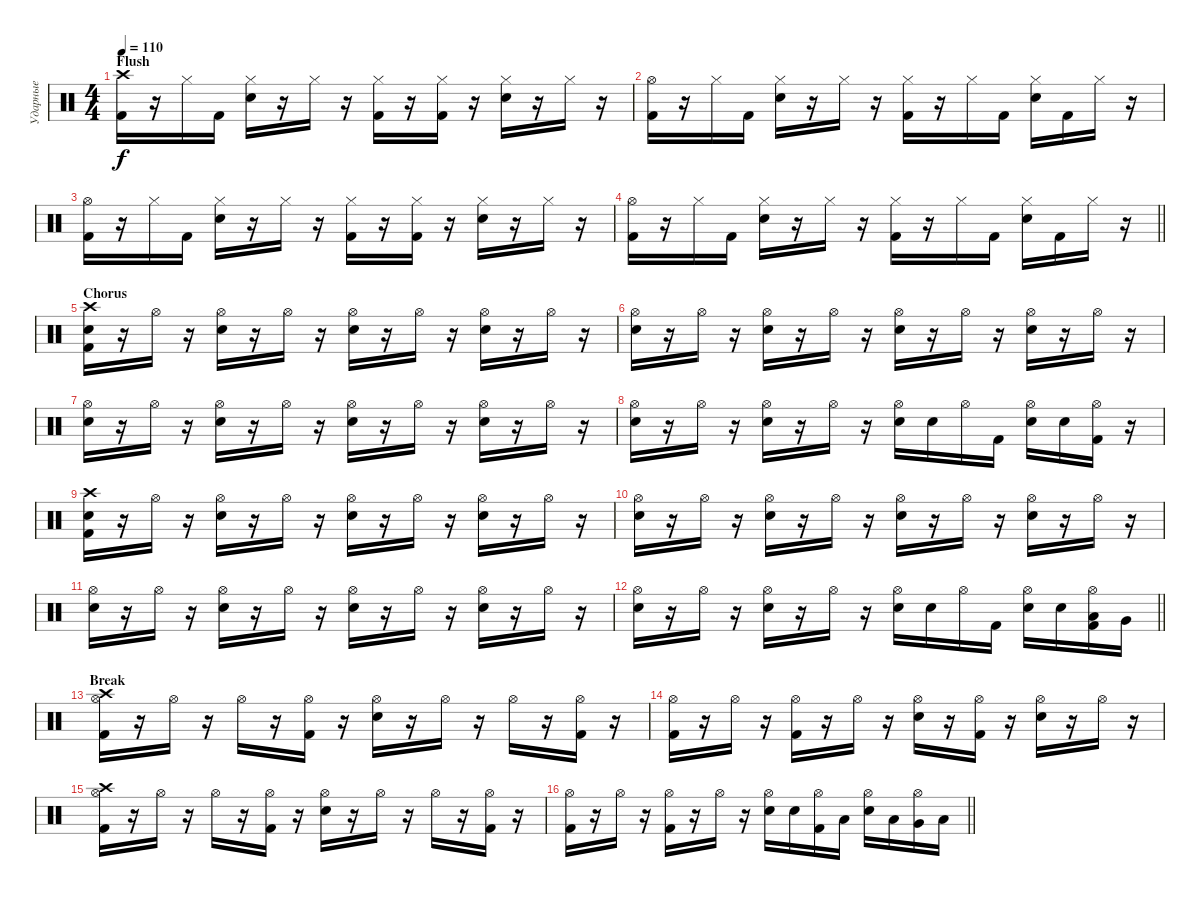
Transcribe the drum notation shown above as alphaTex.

\track ("Ударные" "Ударные") {instrument percussion}
\staff {score}
\articulation defaults
\ts (4 4)
\section ("" "Flush")
\tempo 110
\clef neutral
\ks c
("Crash high (hit)" "Kick (hit) 2").16{dy f} r.16 "Hi-Hat (closed)".16 "Kick (hit) 2".16 ("Hi-Hat (closed)" "Electric Snare (hit)").16 r.16 "Hi-Hat (closed)".16 r.16 ("Hi-Hat (closed)" "Kick (hit) 2").16 r.16 ("Hi-Hat (closed)" "Kick (hit) 2").16 r.16 ("Hi-Hat (closed)" "Electric Snare (hit)").16 r.16 "Hi-Hat (closed)".16 r.16 |
("Hi-Hat (open)" "Kick (hit) 2").16 r.16 "Hi-Hat (closed)".16 "Kick (hit) 2".16 ("Hi-Hat (closed)" "Electric Snare (hit)").16 r.16 "Hi-Hat (closed)".16 r.16 ("Hi-Hat (closed)" "Kick (hit) 2").16 r.16 "Hi-Hat (closed)".16 "Kick (hit) 2".16 ("Hi-Hat (closed)" "Electric Snare (hit)").16 "Kick (hit) 2".16 "Hi-Hat (closed)".16 r.16 |
("Hi-Hat (open)" "Kick (hit) 2").16 r.16 "Hi-Hat (closed)".16 "Kick (hit) 2".16 ("Hi-Hat (closed)" "Electric Snare (hit)").16 r.16 "Hi-Hat (closed)".16 r.16 ("Hi-Hat (closed)" "Kick (hit) 2").16 r.16 ("Hi-Hat (closed)" "Kick (hit) 2").16 r.16 ("Hi-Hat (closed)" "Electric Snare (hit)").16 r.16 "Hi-Hat (closed)".16 r.16 |
\barLineRight lightlight
("Hi-Hat (open)" "Kick (hit) 2").16 r.16 "Hi-Hat (closed)".16 "Kick (hit) 2".16 ("Hi-Hat (closed)" "Electric Snare (hit)").16 r.16 "Hi-Hat (closed)".16 r.16 ("Hi-Hat (closed)" "Kick (hit) 2").16 r.16 "Hi-Hat (closed)".16 "Kick (hit) 2".16 ("Hi-Hat (closed)" "Electric Snare (hit)").16 "Kick (hit) 2".16 "Hi-Hat (closed)".16 r.16 |
\section ("" "Chorus")
("Crash high (hit)" "Electric Snare (hit)" "Kick (hit) 2").16 r.16 "Hi-Hat (open)".16 r.16 ("Hi-Hat (open)" "Electric Snare (hit)").16 r.16 "Hi-Hat (open)".16 r.16 ("Hi-Hat (open)" "Electric Snare (hit)").16 r.16 "Hi-Hat (open)".16 r.16 ("Hi-Hat (open)" "Electric Snare (hit)").16 r.16 "Hi-Hat (open)".16 r.16 |
("Hi-Hat (open)" "Electric Snare (hit)").16 r.16 "Hi-Hat (open)".16 r.16 ("Hi-Hat (open)" "Electric Snare (hit)").16 r.16 "Hi-Hat (open)".16 r.16 ("Hi-Hat (open)" "Electric Snare (hit)").16 r.16 "Hi-Hat (open)".16 r.16 ("Hi-Hat (open)" "Electric Snare (hit)").16 r.16 "Hi-Hat (open)".16 r.16 |
("Hi-Hat (open)" "Electric Snare (hit)").16 r.16 "Hi-Hat (open)".16 r.16 ("Hi-Hat (open)" "Electric Snare (hit)").16 r.16 "Hi-Hat (open)".16 r.16 ("Hi-Hat (open)" "Electric Snare (hit)").16 r.16 "Hi-Hat (open)".16 r.16 ("Hi-Hat (open)" "Electric Snare (hit)").16 r.16 "Hi-Hat (open)".16 r.16 |
("Hi-Hat (open)" "Electric Snare (hit)").16 r.16 "Hi-Hat (open)".16 r.16 ("Hi-Hat (open)" "Electric Snare (hit)").16 r.16 "Hi-Hat (open)".16 r.16 ("Hi-Hat (open)" "Electric Snare (hit)").16 "Electric Snare (hit)".16 "Hi-Hat (open)".16 "Kick (hit) 2".16 ("Hi-Hat (open)" "Electric Snare (hit)").16 "Electric Snare (hit)".16 ("Hi-Hat (open)" "Kick (hit) 2").16 r.16 |
("Crash high (hit)" "Electric Snare (hit)" "Kick (hit) 2").16 r.16 "Hi-Hat (open)".16 r.16 ("Hi-Hat (open)" "Electric Snare (hit)").16 r.16 "Hi-Hat (open)".16 r.16 ("Hi-Hat (open)" "Electric Snare (hit)").16 r.16 "Hi-Hat (open)".16 r.16 ("Hi-Hat (open)" "Electric Snare (hit)").16 r.16 "Hi-Hat (open)".16 r.16 |
("Hi-Hat (open)" "Electric Snare (hit)").16 r.16 "Hi-Hat (open)".16 r.16 ("Hi-Hat (open)" "Electric Snare (hit)").16 r.16 "Hi-Hat (open)".16 r.16 ("Hi-Hat (open)" "Electric Snare (hit)").16 r.16 "Hi-Hat (open)".16 r.16 ("Hi-Hat (open)" "Electric Snare (hit)").16 r.16 "Hi-Hat (open)".16 r.16 |
("Hi-Hat (open)" "Electric Snare (hit)").16 r.16 "Hi-Hat (open)".16 r.16 ("Hi-Hat (open)" "Electric Snare (hit)").16 r.16 "Hi-Hat (open)".16 r.16 ("Hi-Hat (open)" "Electric Snare (hit)").16 r.16 "Hi-Hat (open)".16 r.16 ("Hi-Hat (open)" "Electric Snare (hit)").16 r.16 "Hi-Hat (open)".16 r.16 |
\barLineRight lightlight
("Hi-Hat (open)" "Electric Snare (hit)").16 r.16 "Hi-Hat (open)".16 r.16 ("Hi-Hat (open)" "Electric Snare (hit)").16 r.16 "Hi-Hat (open)".16 r.16 ("Hi-Hat (open)" "Electric Snare (hit)").16 "Electric Snare (hit)".16 "Hi-Hat (open)".16 "Kick (hit) 2".16 ("Hi-Hat (open)" "Electric Snare (hit)").16 "Electric Snare (hit)".16 ("Hi-Hat (open)" "Low Tom (hit)" "Kick (hit) 2").16 "Very Low Tom (hit)".16 |
\section ("" "Break")
("Crash high (hit)" "Hi-Hat (open)" "Kick (hit) 2").16 r.16 "Hi-Hat (open)".16 r.16 "Hi-Hat (open)".16 r.16 ("Hi-Hat (open)" "Kick (hit) 2").16 r.16 ("Hi-Hat (open)" "Electric Snare (hit)").16 r.16 "Hi-Hat (open)".16 r.16 "Hi-Hat (open)".16 r.16 ("Hi-Hat (open)" "Kick (hit) 2").16 r.16 |
("Hi-Hat (open)" "Kick (hit) 2").16 r.16 "Hi-Hat (open)".16 r.16 ("Hi-Hat (open)" "Kick (hit) 2").16 r.16 "Hi-Hat (open)".16 r.16 ("Hi-Hat (open)" "Electric Snare (hit)").16 r.16 ("Hi-Hat (open)" "Kick (hit) 2").16 r.16 ("Hi-Hat (open)" "Electric Snare (hit)").16 r.16 "Hi-Hat (open)".16 r.16 |
("Crash high (hit)" "Hi-Hat (open)" "Kick (hit) 2").16 r.16 "Hi-Hat (open)".16 r.16 "Hi-Hat (open)".16 r.16 ("Hi-Hat (open)" "Kick (hit) 2").16 r.16 ("Hi-Hat (open)" "Electric Snare (hit)").16 r.16 "Hi-Hat (open)".16 r.16 "Hi-Hat (open)".16 r.16 ("Hi-Hat (open)" "Kick (hit) 2").16 r.16 |
\barLineRight lightlight
("Hi-Hat (open)" "Kick (hit) 2").16 r.16 "Hi-Hat (open)".16 r.16 ("Hi-Hat (open)" "Kick (hit) 2").16 r.16 "Hi-Hat (open)".16 r.16 ("Hi-Hat (open)" "Electric Snare (hit)").16 "Electric Snare (hit)".16 ("Hi-Hat (open)" "Kick (hit) 2").16 "Low Floor Tom (hit)".16 ("Hi-Hat (open)" "Electric Snare (hit)").16 "Low Tom (hit)".16 ("Hi-Hat (open)" "Very Low Tom (hit)").16 "Low Floor Tom (hit)".16
